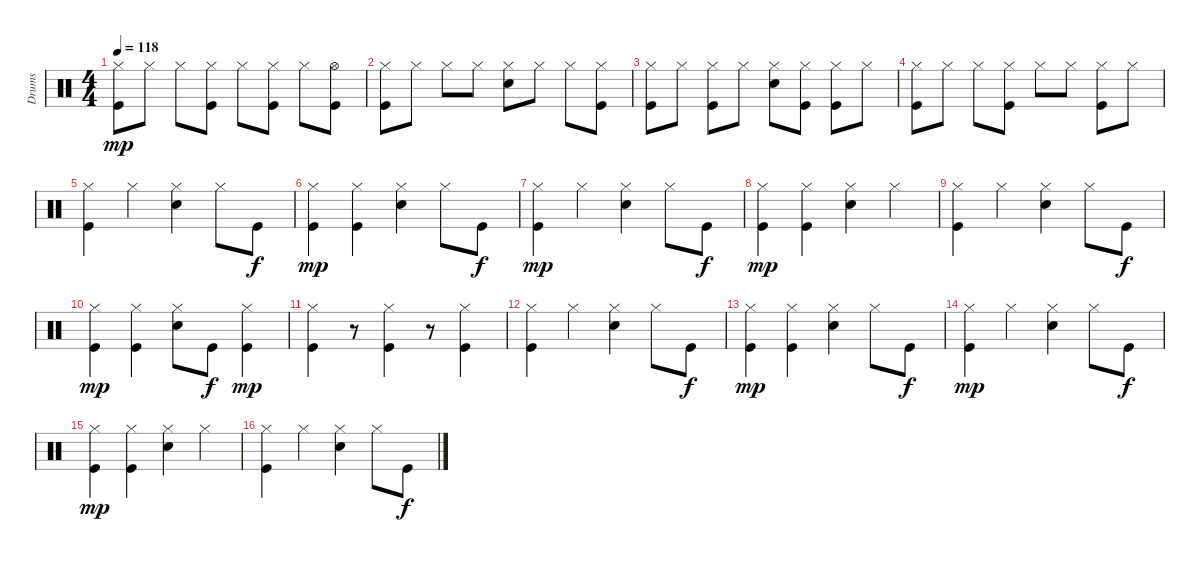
\track ("Drums" "Drums") {instrument percussion}
\staff {score}
\articulation defaults
\ts (4 4)
\tempo 118
\clef neutral
\ks c
("Kick (hit)" "Hi-Hat (closed)").8{dy mp} "Hi-Hat (closed)".8 "Hi-Hat (closed)".8 ("Kick (hit)" "Hi-Hat (closed)").8 "Hi-Hat (closed)".8 ("Kick (hit)" "Hi-Hat (closed)").8 "Hi-Hat (closed)".8 ("Kick (hit)" "Hi-Hat (open)").8 |
("Kick (hit)" "Hi-Hat (closed)").8 "Hi-Hat (closed)".8 "Hi-Hat (closed)".8 "Hi-Hat (closed)".8 ("Snare (hit) 2" "Hi-Hat (closed)").8 "Hi-Hat (closed)".8 "Hi-Hat (closed)".8 ("Kick (hit)" "Hi-Hat (closed)").8 |
("Kick (hit)" "Hi-Hat (closed)").8 "Hi-Hat (closed)".8 ("Kick (hit)" "Hi-Hat (closed)").8 "Hi-Hat (closed)".8 ("Snare (hit) 2" "Hi-Hat (closed)").8 ("Kick (hit)" "Hi-Hat (closed)").8 ("Kick (hit)" "Hi-Hat (closed)").8 "Hi-Hat (closed)".8 |
("Kick (hit)" "Hi-Hat (closed)").8 "Hi-Hat (closed)".8 "Hi-Hat (closed)".8 ("Kick (hit)" "Hi-Hat (closed)").8 "Hi-Hat (closed)".8 "Hi-Hat (closed)".8 ("Kick (hit)" "Hi-Hat (closed)").8 "Hi-Hat (closed)".8 |
("Kick (hit)" "Hi-Hat (closed)").4 "Hi-Hat (closed)".4 ("Snare (hit) 2" "Hi-Hat (closed)").4 "Hi-Hat (closed)".8 "Kick (hit)".8{dy f} |
("Kick (hit)" "Hi-Hat (closed)").4{dy mp} ("Kick (hit)" "Hi-Hat (closed)").4 ("Snare (hit) 2" "Hi-Hat (closed)").4 "Hi-Hat (closed)".8 "Kick (hit)".8{dy f} |
("Kick (hit)" "Hi-Hat (closed)").4{dy mp} "Hi-Hat (closed)".4 ("Snare (hit) 2" "Hi-Hat (closed)").4 "Hi-Hat (closed)".8 "Kick (hit)".8{dy f} |
("Kick (hit)" "Hi-Hat (closed)").4{dy mp} ("Kick (hit)" "Hi-Hat (closed)").4 ("Snare (hit) 2" "Hi-Hat (closed)").4 "Hi-Hat (closed)".4 |
("Kick (hit)" "Hi-Hat (closed)").4 "Hi-Hat (closed)".4 ("Snare (hit) 2" "Hi-Hat (closed)").4 "Hi-Hat (closed)".8 "Kick (hit)".8{dy f} |
("Kick (hit)" "Hi-Hat (closed)").4{dy mp} ("Kick (hit)" "Hi-Hat (closed)").4 ("Snare (hit) 2" "Hi-Hat (closed)").8 "Kick (hit)".8{dy f} ("Kick (hit)" "Hi-Hat (closed)").4{dy mp} |
("Kick (hit)" "Hi-Hat (closed)").4 r.8 ("Kick (hit)" "Hi-Hat (closed)").4 r.8 ("Kick (hit)" "Hi-Hat (closed)").4 |
("Kick (hit)" "Hi-Hat (closed)").4 "Hi-Hat (closed)".4 ("Snare (hit) 2" "Hi-Hat (closed)").4 "Hi-Hat (closed)".8 "Kick (hit)".8{dy f} |
("Kick (hit)" "Hi-Hat (closed)").4{dy mp} ("Kick (hit)" "Hi-Hat (closed)").4 ("Snare (hit) 2" "Hi-Hat (closed)").4 "Hi-Hat (closed)".8 "Kick (hit)".8{dy f} |
("Kick (hit)" "Hi-Hat (closed)").4{dy mp} "Hi-Hat (closed)".4 ("Snare (hit) 2" "Hi-Hat (closed)").4 "Hi-Hat (closed)".8 "Kick (hit)".8{dy f} |
("Kick (hit)" "Hi-Hat (closed)").4{dy mp} ("Kick (hit)" "Hi-Hat (closed)").4 ("Snare (hit) 2" "Hi-Hat (closed)").4 "Hi-Hat (closed)".4 |
("Kick (hit)" "Hi-Hat (closed)").4 "Hi-Hat (closed)".4 ("Snare (hit) 2" "Hi-Hat (closed)").4 "Hi-Hat (closed)".8 "Kick (hit)".8{dy f}
